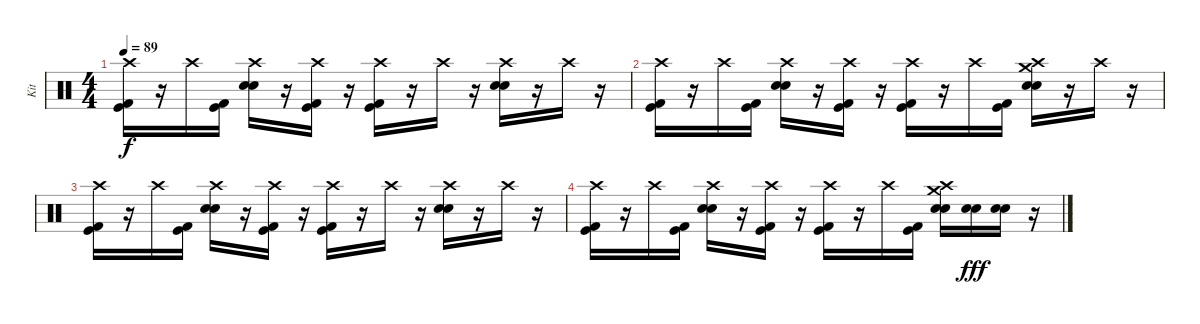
\track ("Kit" "Kit") {instrument percussion}
\staff {score}
\articulation defaults
\ts (4 4)
\tempo 89
\clef neutral
\ks c
("Crash high (hit)" "Kick (hit) 2" "Kick (hit)").16{dy f} r.16 "Crash high (hit)".16 ("Kick (hit) 2" "Kick (hit)").16 ("Crash high (hit)" "Electric Snare (hit)" "Snare (hit) 2").16 r.16 ("Crash high (hit)" "Kick (hit) 2" "Kick (hit)").16 r.16 ("Crash high (hit)" "Kick (hit) 2" "Kick (hit)").16 r.16 "Crash high (hit)".16 r.16 ("Crash high (hit)" "Electric Snare (hit)" "Snare (hit) 2").16 r.16 "Crash high (hit)".16 r.16 |
("Crash high (hit)" "Kick (hit) 2" "Kick (hit)").16 r.16 "Crash high (hit)".16 ("Kick (hit) 2" "Kick (hit)").16 ("Crash high (hit)" "Electric Snare (hit)" "Snare (hit) 2").16 r.16 ("Crash high (hit)" "Kick (hit) 2" "Kick (hit)").16 r.16 ("Crash high (hit)" "Kick (hit) 2" "Kick (hit)").16 r.16 "Crash high (hit)".16 ("Kick (hit) 2" "Kick (hit)").16 ("Crash high (hit)" "Crash medium (hit)" "Electric Snare (hit)" "Snare (hit) 2").16 r.16 "Crash high (hit)".16 r.16 |
("Crash high (hit)" "Kick (hit) 2" "Kick (hit)").16 r.16 "Crash high (hit)".16 ("Kick (hit) 2" "Kick (hit)").16 ("Crash high (hit)" "Electric Snare (hit)" "Snare (hit) 2").16 r.16 ("Crash high (hit)" "Kick (hit) 2" "Kick (hit)").16 r.16 ("Crash high (hit)" "Kick (hit) 2" "Kick (hit)").16 r.16 "Crash high (hit)".16 r.16 ("Crash high (hit)" "Electric Snare (hit)" "Snare (hit) 2").16 r.16 "Crash high (hit)".16 r.16 |
("Crash high (hit)" "Kick (hit) 2" "Kick (hit)").16 r.16 "Crash high (hit)".16 ("Kick (hit) 2" "Kick (hit)").16 ("Crash high (hit)" "Electric Snare (hit)" "Snare (hit) 2").16 r.16 ("Crash high (hit)" "Kick (hit) 2" "Kick (hit)").16 r.16 ("Crash high (hit)" "Kick (hit) 2" "Kick (hit)").16 r.16 "Crash high (hit)".16 ("Kick (hit) 2" "Kick (hit)").16 ("Crash high (hit)" "Crash medium (hit)" "Electric Snare (hit)" "Snare (hit) 2").16 ("Electric Snare (hit)" "Snare (hit) 2").16{dy fff} ("Electric Snare (hit)" "Snare (hit) 2").16 r.16
